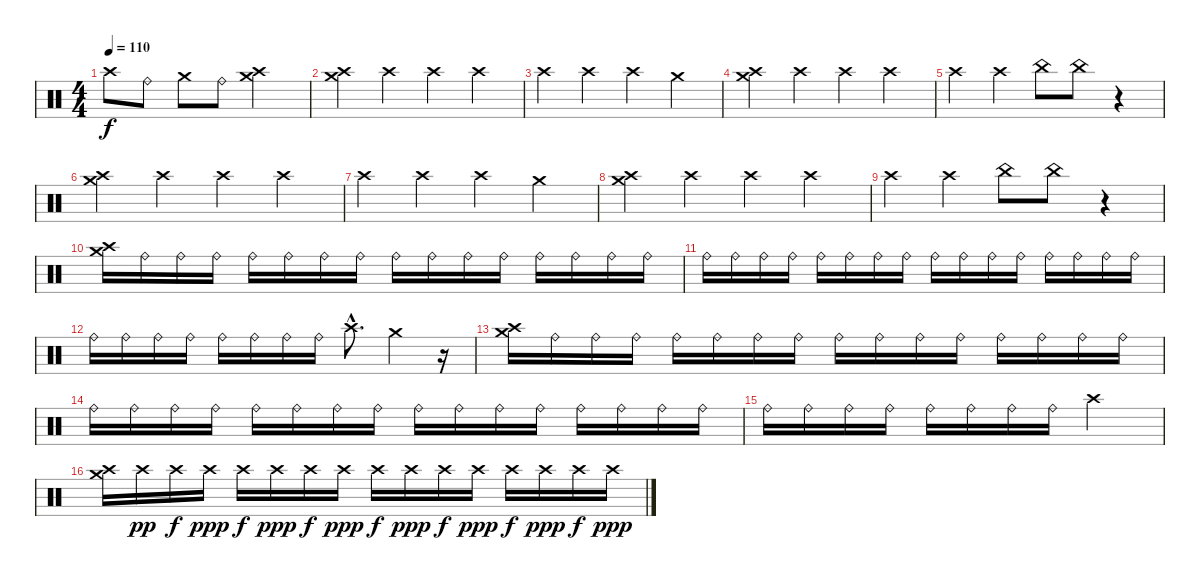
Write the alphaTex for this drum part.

\track "" {instrument percussion}
\staff {score}
\articulation defaults
\ts (4 4)
\tempo 110
\clef neutral
\ks c "Crash high (hit)".8{dy f} "Ride (bell)".8 "Crash medium (hit)".8 "Ride (bell)".8
("Crash medium (hit)" "Crash high (hit)").2 |
("Crash high (hit)" "Crash medium (hit)").4 "Crash high (hit)".4 "Crash high (hit)".4 "Crash high (hit)".4 |
"Crash high (hit)".4 "Crash high (hit)".4 "Crash high (hit)".4 "Crash medium (hit)".4 |
("Crash high (hit)" "Crash medium (hit)").4 "Crash high (hit)".4 "Crash high (hit)".4 "Crash high (hit)".4 |
"Crash high (hit)".4 "Crash high (hit)".4 "China (hit)".8 "China (hit)".8 r.4 |
("Crash high (hit)" "Crash medium (hit)").4 "Crash high (hit)".4 "Crash high (hit)".4 "Crash high (hit)".4 |
"Crash high (hit)".4 "Crash high (hit)".4 "Crash high (hit)".4 "Crash medium (hit)".4 |
("Crash high (hit)" "Crash medium (hit)").4 "Crash high (hit)".4 "Crash high (hit)".4 "Crash high (hit)".4 |
"Crash high (hit)".4 "Crash high (hit)".4 "China (hit)".8 "China (hit)".8 r.4 |
("Crash medium (hit)" "Crash high (hit)").16 "Ride (bell)".16 "Ride (bell)".16 "Ride (bell)".16 "Ride (bell)".16 "Ride (bell)".16 "Ride (bell)".16 "Ride (bell)".16 "Ride (bell)".16 "Ride (bell)".16 "Ride (bell)".16 "Ride (bell)".16 "Ride (bell)".16 "Ride (bell)".16 "Ride (bell)".16 "Ride (bell)".16 |
"Ride (bell)".16 "Ride (bell)".16 "Ride (bell)".16 "Ride (bell)".16 "Ride (bell)".16 "Ride (bell)".16 "Ride (bell)".16 "Ride (bell)".16 "Ride (bell)".16 "Ride (bell)".16 "Ride (bell)".16 "Ride (bell)".16 "Ride (bell)".16 "Ride (bell)".16 "Ride (bell)".16 "Ride (bell)".16 |
"Ride (bell)".16 "Ride (bell)".16 "Ride (bell)".16 "Ride (bell)".16 "Ride (bell)".16 "Ride (bell)".16 "Ride (bell)".16 "Ride (bell)".16 "Crash high (hit)"{hac}.8{d} "Crash medium (hit)".4 r.16 |
("Crash medium (hit)" "Crash high (hit)").16 "Ride (bell)".16 "Ride (bell)".16 "Ride (bell)".16 "Ride (bell)".16 "Ride (bell)".16 "Ride (bell)".16 "Ride (bell)".16 "Ride (bell)".16 "Ride (bell)".16 "Ride (bell)".16 "Ride (bell)".16 "Ride (bell)".16 "Ride (bell)".16 "Ride (bell)".16 "Ride (bell)".16 |
"Ride (bell)".16 "Ride (bell)".16 "Ride (bell)".16 "Ride (bell)".16 "Ride (bell)".16 "Ride (bell)".16 "Ride (bell)".16 "Ride (bell)".16 "Ride (bell)".16 "Ride (bell)".16 "Ride (bell)".16 "Ride (bell)".16 "Ride (bell)".16 "Ride (bell)".16 "Ride (bell)".16 "Ride (bell)".16 |
"Ride (bell)".16 "Ride (bell)".16 "Ride (bell)".16 "Ride (bell)".16 "Ride (bell)".16 "Ride (bell)".16 "Ride (bell)".16 "Ride (bell)".16 "Crash high (hit)".2 |
("Crash medium (hit)" "Crash high (hit)").16 "Crash high (hit)".16{dy pp} "Crash high (hit)".16{dy f} "Crash high (hit)".16{dy ppp} "Crash high (hit)".16{dy f} "Crash high (hit)".16{dy ppp} "Crash high (hit)".16{dy f} "Crash high (hit)".16{dy ppp} "Crash high (hit)".16{dy f} "Crash high (hit)".16{dy ppp} "Crash high (hit)".16{dy f} "Crash high (hit)".16{dy ppp} "Crash high (hit)".16{dy f} "Crash high (hit)".16{dy ppp} "Crash high (hit)".16{dy f} "Crash high (hit)".16{dy ppp}
